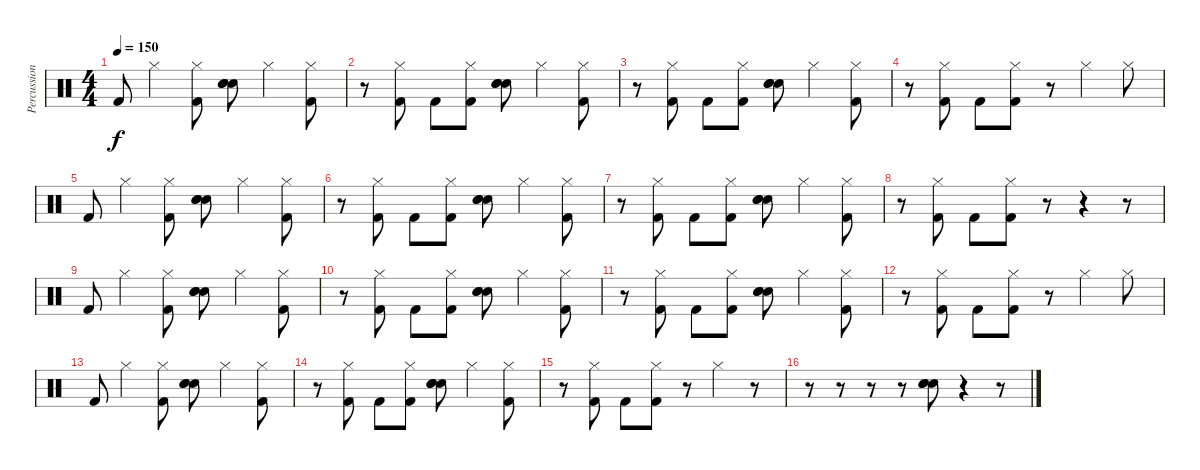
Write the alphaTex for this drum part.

\track ("Percussion" "Percussion") {instrument percussion}
\staff {score}
\articulation defaults
\ts (4 4)
\tempo 150
\clef neutral
\ks c "Kick (hit) 2".8{dy f} "Hi-Hat (closed)".4
("Hi-Hat (closed)" "Kick (hit) 2").8 ("Hand Clap (hit)" "Electric Snare (hit)" "Snare (hit) 2").8 "Hi-Hat (closed)".4 ("Hi-Hat (closed)" "Kick (hit) 2").8 |
r.8 ("Hi-Hat (closed)" "Kick (hit) 2").8 "Kick (hit) 2".8 ("Hi-Hat (closed)" "Kick (hit) 2").8 ("Hand Clap (hit)" "Electric Snare (hit)" "Snare (hit) 2").8 "Hi-Hat (closed)".4 ("Hi-Hat (closed)" "Kick (hit) 2").8 |
r.8 ("Hi-Hat (closed)" "Kick (hit) 2").8 "Kick (hit) 2".8 ("Hi-Hat (closed)" "Kick (hit) 2").8 ("Hand Clap (hit)" "Electric Snare (hit)" "Snare (hit) 2").8 "Hi-Hat (closed)".4 ("Hi-Hat (closed)" "Kick (hit) 2").8 |
r.8 ("Hi-Hat (closed)" "Kick (hit) 2").8 "Kick (hit) 2".8 ("Hi-Hat (closed)" "Kick (hit) 2").8 r.8 "Hi-Hat (closed)".4 "Hi-Hat (closed)".8 |
"Kick (hit) 2".8 "Hi-Hat (closed)".4 ("Hi-Hat (closed)" "Kick (hit) 2").8 ("Hand Clap (hit)" "Electric Snare (hit)" "Snare (hit) 2").8 "Hi-Hat (closed)".4 ("Hi-Hat (closed)" "Kick (hit) 2").8 |
r.8 ("Hi-Hat (closed)" "Kick (hit) 2").8 "Kick (hit) 2".8 ("Hi-Hat (closed)" "Kick (hit) 2").8 ("Hand Clap (hit)" "Electric Snare (hit)" "Snare (hit) 2").8 "Hi-Hat (closed)".4 ("Hi-Hat (closed)" "Kick (hit) 2").8 |
r.8 ("Hi-Hat (closed)" "Kick (hit) 2").8 "Kick (hit) 2".8 ("Hi-Hat (closed)" "Kick (hit) 2").8 ("Hand Clap (hit)" "Electric Snare (hit)" "Snare (hit) 2").8 "Hi-Hat (closed)".4 ("Hi-Hat (closed)" "Kick (hit) 2").8 |
r.8 ("Hi-Hat (closed)" "Kick (hit) 2").8 "Kick (hit) 2".8 ("Hi-Hat (closed)" "Kick (hit) 2").8 r.8 r.4 r.8 |
"Kick (hit) 2".8 "Hi-Hat (closed)".4 ("Hi-Hat (closed)" "Kick (hit) 2").8 ("Hand Clap (hit)" "Electric Snare (hit)" "Snare (hit) 2").8 "Hi-Hat (closed)".4 ("Hi-Hat (closed)" "Kick (hit) 2").8 |
r.8 ("Hi-Hat (closed)" "Kick (hit) 2").8 "Kick (hit) 2".8 ("Hi-Hat (closed)" "Kick (hit) 2").8 ("Hand Clap (hit)" "Electric Snare (hit)" "Snare (hit) 2").8 "Hi-Hat (closed)".4 ("Hi-Hat (closed)" "Kick (hit) 2").8 |
r.8 ("Hi-Hat (closed)" "Kick (hit) 2").8 "Kick (hit) 2".8 ("Hi-Hat (closed)" "Kick (hit) 2").8 ("Hand Clap (hit)" "Electric Snare (hit)" "Snare (hit) 2").8 "Hi-Hat (closed)".4 ("Hi-Hat (closed)" "Kick (hit) 2").8 |
r.8 ("Hi-Hat (closed)" "Kick (hit) 2").8 "Kick (hit) 2".8 ("Hi-Hat (closed)" "Kick (hit) 2").8 r.8 "Hi-Hat (closed)".4 "Hi-Hat (closed)".8 |
"Kick (hit) 2".8 "Hi-Hat (closed)".4 ("Hi-Hat (closed)" "Kick (hit) 2").8 ("Hand Clap (hit)" "Electric Snare (hit)" "Snare (hit) 2").8 "Hi-Hat (closed)".4 ("Hi-Hat (closed)" "Kick (hit) 2").8 |
r.8 ("Hi-Hat (closed)" "Kick (hit) 2").8 "Kick (hit) 2".8 ("Hi-Hat (closed)" "Kick (hit) 2").8 ("Hand Clap (hit)" "Electric Snare (hit)" "Snare (hit) 2").8 "Hi-Hat (closed)".4 ("Hi-Hat (closed)" "Kick (hit) 2").8 |
r.8 ("Hi-Hat (closed)" "Kick (hit) 2").8 "Kick (hit) 2".8 ("Hi-Hat (closed)" "Kick (hit) 2").8 r.8 "Hi-Hat (closed)".4 r.8 |
r.8 r.8 r.8 r.8 ("Hand Clap (hit)" "Electric Snare (hit)" "Snare (hit) 2").8 r.4 r.8
